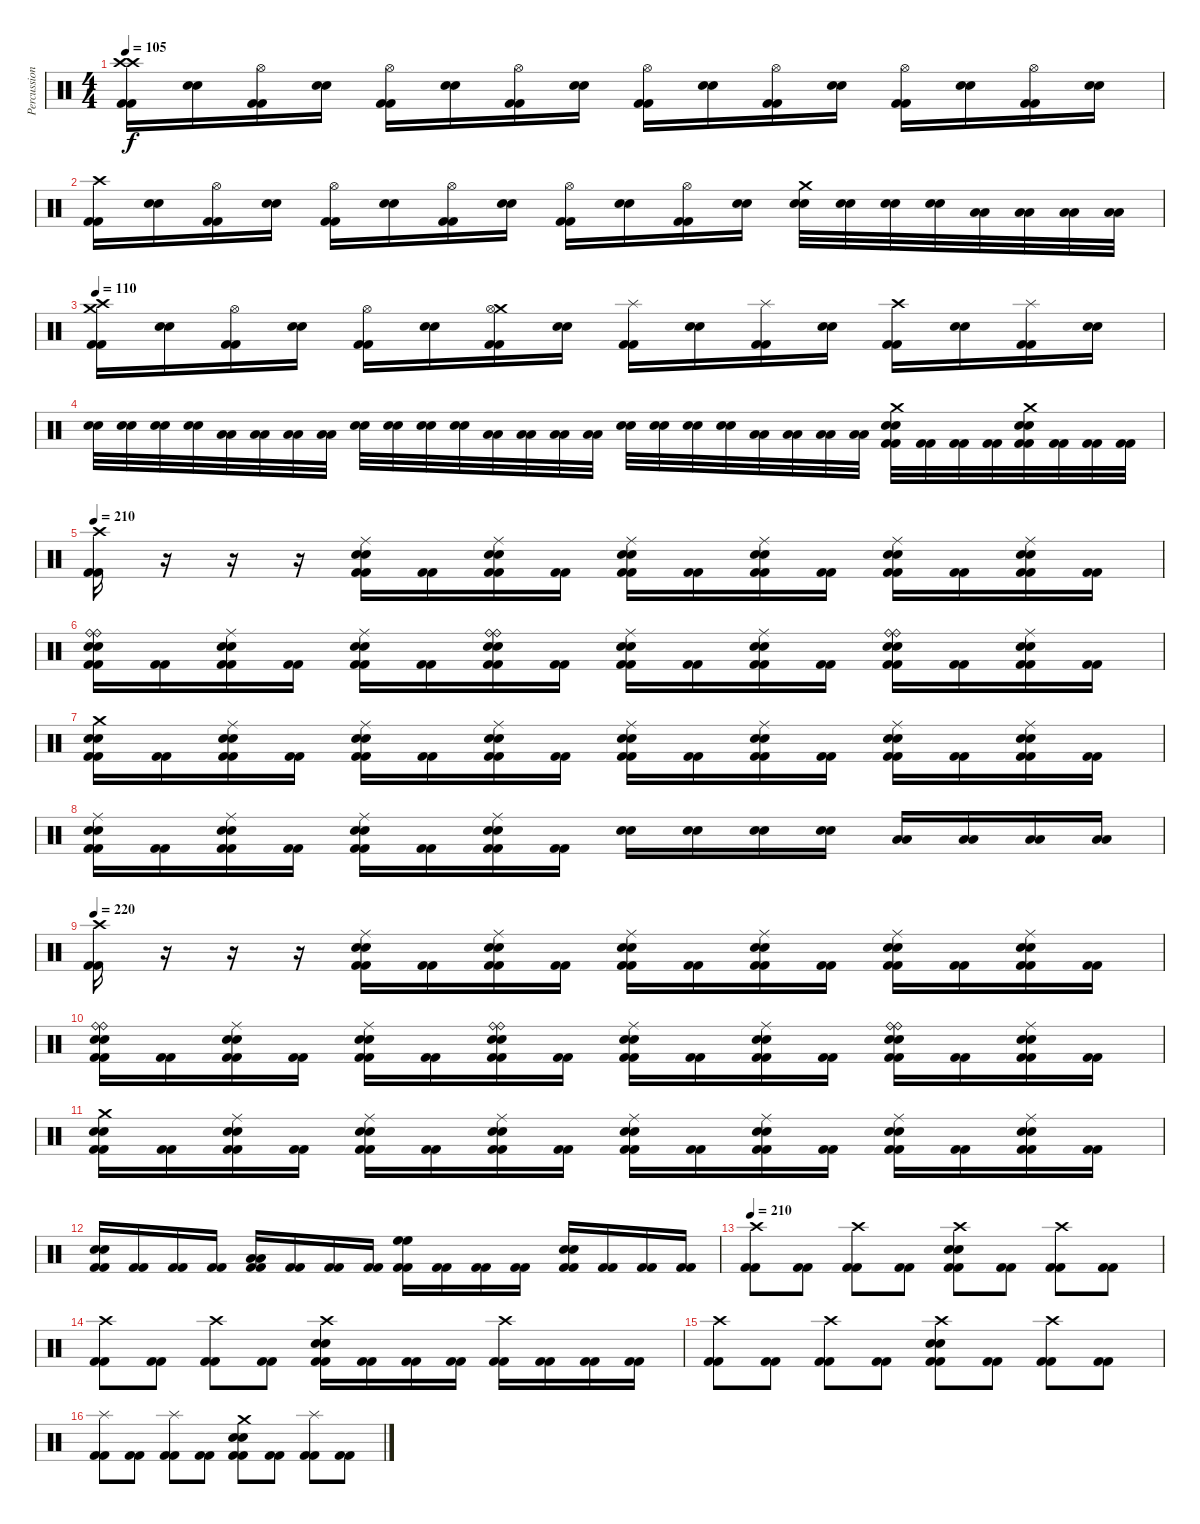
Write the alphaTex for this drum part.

\track ("Percussions" "Percussion") {instrument percussion}
\staff {score}
\articulation defaults
\ts (4 4)
\tempo 110
\tempo 105
\clef neutral
\ks c
("Crash high (hit)" "Crash high (hit)" "Kick (hit) 2" "Kick (hit) 2").16{dy f} ("Electric Snare (hit)" "Electric Snare (hit)").16 ("Hi-Hat (open)" "Kick (hit) 2" "Kick (hit) 2").16 ("Electric Snare (hit)" "Electric Snare (hit)").16 ("Hi-Hat (open)" "Kick (hit) 2" "Kick (hit) 2").16 ("Electric Snare (hit)" "Electric Snare (hit)").16 ("Hi-Hat (open)" "Kick (hit) 2" "Kick (hit) 2").16 ("Electric Snare (hit)" "Electric Snare (hit)").16 ("Hi-Hat (open)" "Kick (hit) 2" "Kick (hit) 2").16 ("Electric Snare (hit)" "Electric Snare (hit)").16 ("Hi-Hat (open)" "Kick (hit) 2" "Kick (hit) 2").16 ("Electric Snare (hit)" "Electric Snare (hit)").16 ("Hi-Hat (open)" "Kick (hit) 2" "Kick (hit) 2").16 ("Electric Snare (hit)" "Electric Snare (hit)").16 ("Hi-Hat (open)" "Kick (hit) 2" "Kick (hit) 2").16 ("Electric Snare (hit)" "Electric Snare (hit)").16 |
("Crash high (hit)" "Kick (hit) 2" "Kick (hit) 2").16 ("Electric Snare (hit)" "Electric Snare (hit)").16 ("Hi-Hat (open)" "Kick (hit) 2" "Kick (hit) 2").16 ("Electric Snare (hit)" "Electric Snare (hit)").16 ("Hi-Hat (open)" "Kick (hit) 2" "Kick (hit) 2").16 ("Electric Snare (hit)" "Electric Snare (hit)").16 ("Hi-Hat (open)" "Kick (hit) 2" "Kick (hit) 2").16 ("Electric Snare (hit)" "Electric Snare (hit)").16 ("Hi-Hat (open)" "Kick (hit) 2" "Kick (hit) 2").16 ("Electric Snare (hit)" "Electric Snare (hit)").16 ("Hi-Hat (open)" "Kick (hit) 2" "Kick (hit) 2").16 ("Electric Snare (hit)" "Electric Snare (hit)").16 ("Crash medium (hit)" "Electric Snare (hit)" "Electric Snare (hit)").32 ("Electric Snare (hit)" "Electric Snare (hit)").32 ("Electric Snare (hit)" "Electric Snare (hit)").32 ("Electric Snare (hit)" "Electric Snare (hit)").32 ("Low Tom (hit)" "Low Tom (hit)").32 ("Low Tom (hit)" "Low Tom (hit)").32 ("Low Tom (hit)" "Low Tom (hit)").32 ("Low Tom (hit)" "Low Tom (hit)").32 |
\tempo 110
("Crash high (hit)" "Crash medium (hit)" "Kick (hit) 2" "Kick (hit) 2").16 ("Electric Snare (hit)" "Electric Snare (hit)").16 ("Hi-Hat (open)" "Kick (hit) 2" "Kick (hit) 2").16 ("Electric Snare (hit)" "Electric Snare (hit)").16 ("Hi-Hat (open)" "Kick (hit) 2" "Kick (hit) 2").16 ("Electric Snare (hit)" "Electric Snare (hit)").16 ("Crash medium (hit)" "Hi-Hat (open)" "Kick (hit) 2" "Kick (hit) 2").16 ("Electric Snare (hit)" "Electric Snare (hit)").16 ("Splash (hit)" "Kick (hit) 2" "Kick (hit) 2").16 ("Electric Snare (hit)" "Electric Snare (hit)").16 ("Splash (hit)" "Kick (hit) 2" "Kick (hit) 2").16 ("Electric Snare (hit)" "Electric Snare (hit)").16 ("Crash high (hit)" "Kick (hit) 2" "Kick (hit) 2").16 ("Electric Snare (hit)" "Electric Snare (hit)").16 ("Splash (hit)" "Kick (hit) 2" "Kick (hit) 2").16 ("Electric Snare (hit)" "Electric Snare (hit)").16 |
("Electric Snare (hit)" "Electric Snare (hit)").32 ("Electric Snare (hit)" "Electric Snare (hit)").32 ("Electric Snare (hit)" "Electric Snare (hit)").32 ("Electric Snare (hit)" "Electric Snare (hit)").32 ("Low Tom (hit)" "Low Tom (hit)").32 ("Low Tom (hit)" "Low Tom (hit)").32 ("Low Tom (hit)" "Low Tom (hit)").32 ("Low Tom (hit)" "Low Tom (hit)").32 ("Electric Snare (hit)" "Electric Snare (hit)").32 ("Electric Snare (hit)" "Electric Snare (hit)").32 ("Electric Snare (hit)" "Electric Snare (hit)").32 ("Electric Snare (hit)" "Electric Snare (hit)").32 ("Low Tom (hit)" "Low Tom (hit)").32 ("Low Tom (hit)" "Low Tom (hit)").32 ("Low Tom (hit)" "Low Tom (hit)").32 ("Low Tom (hit)" "Low Tom (hit)").32 ("Electric Snare (hit)" "Electric Snare (hit)").32 ("Electric Snare (hit)" "Electric Snare (hit)").32 ("Electric Snare (hit)" "Electric Snare (hit)").32 ("Electric Snare (hit)" "Electric Snare (hit)").32 ("Low Tom (hit)" "Low Tom (hit)").32 ("Low Tom (hit)" "Low Tom (hit)").32 ("Low Tom (hit)" "Low Tom (hit)").32 ("Low Tom (hit)" "Low Tom (hit)").32 ("Crash medium (hit)" "Electric Snare (hit)" "Electric Snare (hit)" "Kick (hit) 2" "Kick (hit) 2").32 ("Kick (hit) 2" "Kick (hit) 2").32 ("Kick (hit) 2" "Kick (hit) 2").32 ("Kick (hit) 2" "Kick (hit) 2").32 ("Crash medium (hit)" "Electric Snare (hit)" "Electric Snare (hit)" "Kick (hit) 2" "Kick (hit) 2").32 ("Kick (hit) 2" "Kick (hit) 2").32 ("Kick (hit) 2" "Kick (hit) 2").32 ("Kick (hit) 2" "Kick (hit) 2").32 |
\tempo 210
("Crash high (hit)" "Kick (hit) 2" "Kick (hit) 2").16 r.16 r.16 r.16 ("Ride (middle)" "Electric Snare (hit)" "Electric Snare (hit)" "Kick (hit) 2" "Kick (hit) 2").16 ("Kick (hit) 2" "Kick (hit) 2").16 ("Ride (middle)" "Electric Snare (hit)" "Electric Snare (hit)" "Kick (hit) 2" "Kick (hit) 2").16 ("Kick (hit) 2" "Kick (hit) 2").16 ("Ride (middle)" "Electric Snare (hit)" "Electric Snare (hit)" "Kick (hit) 2" "Kick (hit) 2").16 ("Kick (hit) 2" "Kick (hit) 2").16 ("Ride (middle)" "Electric Snare (hit)" "Electric Snare (hit)" "Kick (hit) 2" "Kick (hit) 2").16 ("Kick (hit) 2" "Kick (hit) 2").16 ("Ride (middle)" "Electric Snare (hit)" "Electric Snare (hit)" "Kick (hit) 2" "Kick (hit) 2").16 ("Kick (hit) 2" "Kick (hit) 2").16 ("Ride (middle)" "Electric Snare (hit)" "Electric Snare (hit)" "Kick (hit) 2" "Kick (hit) 2").16 ("Kick (hit) 2" "Kick (hit) 2").16 |
("Ride (bell)" "Ride (bell)" "Electric Snare (hit)" "Electric Snare (hit)" "Kick (hit) 2" "Kick (hit) 2").16 ("Kick (hit) 2" "Kick (hit) 2").16 ("Ride (middle)" "Electric Snare (hit)" "Electric Snare (hit)" "Kick (hit) 2" "Kick (hit) 2").16 ("Kick (hit) 2" "Kick (hit) 2").16 ("Ride (middle)" "Electric Snare (hit)" "Electric Snare (hit)" "Kick (hit) 2" "Kick (hit) 2").16 ("Kick (hit) 2" "Kick (hit) 2").16 ("Ride (bell)" "Ride (bell)" "Electric Snare (hit)" "Electric Snare (hit)" "Kick (hit) 2" "Kick (hit) 2").16 ("Kick (hit) 2" "Kick (hit) 2").16 ("Ride (middle)" "Electric Snare (hit)" "Electric Snare (hit)" "Kick (hit) 2" "Kick (hit) 2").16 ("Kick (hit) 2" "Kick (hit) 2").16 ("Ride (middle)" "Electric Snare (hit)" "Electric Snare (hit)" "Kick (hit) 2" "Kick (hit) 2").16 ("Kick (hit) 2" "Kick (hit) 2").16 ("Ride (bell)" "Ride (bell)" "Electric Snare (hit)" "Electric Snare (hit)" "Kick (hit) 2" "Kick (hit) 2").16 ("Kick (hit) 2" "Kick (hit) 2").16 ("Ride (middle)" "Electric Snare (hit)" "Electric Snare (hit)" "Kick (hit) 2" "Kick (hit) 2").16 ("Kick (hit) 2" "Kick (hit) 2").16 |
("Crash medium (hit)" "Electric Snare (hit)" "Electric Snare (hit)" "Kick (hit) 2" "Kick (hit) 2").16 ("Kick (hit) 2" "Kick (hit) 2").16 ("Ride (middle)" "Electric Snare (hit)" "Electric Snare (hit)" "Kick (hit) 2" "Kick (hit) 2").16 ("Kick (hit) 2" "Kick (hit) 2").16 ("Ride (middle)" "Electric Snare (hit)" "Electric Snare (hit)" "Kick (hit) 2" "Kick (hit) 2").16 ("Kick (hit) 2" "Kick (hit) 2").16 ("Ride (middle)" "Electric Snare (hit)" "Electric Snare (hit)" "Kick (hit) 2" "Kick (hit) 2").16 ("Kick (hit) 2" "Kick (hit) 2").16 ("Ride (middle)" "Electric Snare (hit)" "Electric Snare (hit)" "Kick (hit) 2" "Kick (hit) 2").16 ("Kick (hit) 2" "Kick (hit) 2").16 ("Ride (middle)" "Electric Snare (hit)" "Electric Snare (hit)" "Kick (hit) 2" "Kick (hit) 2").16 ("Kick (hit) 2" "Kick (hit) 2").16 ("Ride (middle)" "Electric Snare (hit)" "Electric Snare (hit)" "Kick (hit) 2" "Kick (hit) 2").16 ("Kick (hit) 2" "Kick (hit) 2").16 ("Ride (middle)" "Electric Snare (hit)" "Electric Snare (hit)" "Kick (hit) 2" "Kick (hit) 2").16 ("Kick (hit) 2" "Kick (hit) 2").16 |
("Ride (middle)" "Electric Snare (hit)" "Electric Snare (hit)" "Kick (hit) 2" "Kick (hit) 2").16 ("Kick (hit) 2" "Kick (hit) 2").16 ("Ride (middle)" "Electric Snare (hit)" "Electric Snare (hit)" "Kick (hit) 2" "Kick (hit) 2").16 ("Kick (hit) 2" "Kick (hit) 2").16 ("Ride (middle)" "Electric Snare (hit)" "Electric Snare (hit)" "Kick (hit) 2" "Kick (hit) 2").16 ("Kick (hit) 2" "Kick (hit) 2").16 ("Ride (middle)" "Electric Snare (hit)" "Electric Snare (hit)" "Kick (hit) 2" "Kick (hit) 2").16 ("Kick (hit) 2" "Kick (hit) 2").16 ("Electric Snare (hit)" "Electric Snare (hit)").16 ("Electric Snare (hit)" "Electric Snare (hit)").16 ("Electric Snare (hit)" "Electric Snare (hit)").16 ("Electric Snare (hit)" "Electric Snare (hit)").16 ("Low Tom (hit)" "Low Tom (hit)").16 ("Low Tom (hit)" "Low Tom (hit)").16 ("Low Tom (hit)" "Low Tom (hit)").16 ("Low Tom (hit)" "Low Tom (hit)").16 |
\tempo 220
("Crash high (hit)" "Kick (hit) 2" "Kick (hit) 2").16 r.16 r.16 r.16 ("Ride (middle)" "Electric Snare (hit)" "Electric Snare (hit)" "Kick (hit) 2" "Kick (hit) 2").16 ("Kick (hit) 2" "Kick (hit) 2").16 ("Ride (middle)" "Electric Snare (hit)" "Electric Snare (hit)" "Kick (hit) 2" "Kick (hit) 2").16 ("Kick (hit) 2" "Kick (hit) 2").16 ("Ride (middle)" "Electric Snare (hit)" "Electric Snare (hit)" "Kick (hit) 2" "Kick (hit) 2").16 ("Kick (hit) 2" "Kick (hit) 2").16 ("Ride (middle)" "Electric Snare (hit)" "Electric Snare (hit)" "Kick (hit) 2" "Kick (hit) 2").16 ("Kick (hit) 2" "Kick (hit) 2").16 ("Ride (middle)" "Electric Snare (hit)" "Electric Snare (hit)" "Kick (hit) 2" "Kick (hit) 2").16 ("Kick (hit) 2" "Kick (hit) 2").16 ("Ride (middle)" "Electric Snare (hit)" "Electric Snare (hit)" "Kick (hit) 2" "Kick (hit) 2").16 ("Kick (hit) 2" "Kick (hit) 2").16 |
("Ride (bell)" "Ride (bell)" "Electric Snare (hit)" "Electric Snare (hit)" "Kick (hit) 2" "Kick (hit) 2").16 ("Kick (hit) 2" "Kick (hit) 2").16 ("Ride (middle)" "Electric Snare (hit)" "Electric Snare (hit)" "Kick (hit) 2" "Kick (hit) 2").16 ("Kick (hit) 2" "Kick (hit) 2").16 ("Ride (middle)" "Electric Snare (hit)" "Electric Snare (hit)" "Kick (hit) 2" "Kick (hit) 2").16 ("Kick (hit) 2" "Kick (hit) 2").16 ("Ride (bell)" "Ride (bell)" "Electric Snare (hit)" "Electric Snare (hit)" "Kick (hit) 2" "Kick (hit) 2").16 ("Kick (hit) 2" "Kick (hit) 2").16 ("Ride (middle)" "Electric Snare (hit)" "Electric Snare (hit)" "Kick (hit) 2" "Kick (hit) 2").16 ("Kick (hit) 2" "Kick (hit) 2").16 ("Ride (middle)" "Electric Snare (hit)" "Electric Snare (hit)" "Kick (hit) 2" "Kick (hit) 2").16 ("Kick (hit) 2" "Kick (hit) 2").16 ("Ride (bell)" "Ride (bell)" "Electric Snare (hit)" "Electric Snare (hit)" "Kick (hit) 2" "Kick (hit) 2").16 ("Kick (hit) 2" "Kick (hit) 2").16 ("Ride (middle)" "Electric Snare (hit)" "Electric Snare (hit)" "Kick (hit) 2" "Kick (hit) 2").16 ("Kick (hit) 2" "Kick (hit) 2").16 |
("Crash medium (hit)" "Electric Snare (hit)" "Electric Snare (hit)" "Kick (hit) 2" "Kick (hit) 2").16 ("Kick (hit) 2" "Kick (hit) 2").16 ("Ride (middle)" "Electric Snare (hit)" "Electric Snare (hit)" "Kick (hit) 2" "Kick (hit) 2").16 ("Kick (hit) 2" "Kick (hit) 2").16 ("Ride (middle)" "Electric Snare (hit)" "Electric Snare (hit)" "Kick (hit) 2" "Kick (hit) 2").16 ("Kick (hit) 2" "Kick (hit) 2").16 ("Ride (middle)" "Electric Snare (hit)" "Electric Snare (hit)" "Kick (hit) 2" "Kick (hit) 2").16 ("Kick (hit) 2" "Kick (hit) 2").16 ("Ride (middle)" "Electric Snare (hit)" "Electric Snare (hit)" "Kick (hit) 2" "Kick (hit) 2").16 ("Kick (hit) 2" "Kick (hit) 2").16 ("Ride (middle)" "Electric Snare (hit)" "Electric Snare (hit)" "Kick (hit) 2" "Kick (hit) 2").16 ("Kick (hit) 2" "Kick (hit) 2").16 ("Ride (middle)" "Electric Snare (hit)" "Electric Snare (hit)" "Kick (hit) 2" "Kick (hit) 2").16 ("Kick (hit) 2" "Kick (hit) 2").16 ("Ride (middle)" "Electric Snare (hit)" "Electric Snare (hit)" "Kick (hit) 2" "Kick (hit) 2").16 ("Kick (hit) 2" "Kick (hit) 2").16 |
("Electric Snare (hit)" "Electric Snare (hit)" "Kick (hit) 2" "Kick (hit) 2").16 ("Kick (hit) 2" "Kick (hit) 2").16 ("Kick (hit) 2" "Kick (hit) 2").16 ("Kick (hit) 2" "Kick (hit) 2").16 ("Low Tom (hit)" "Low Tom (hit)" "Kick (hit) 2" "Kick (hit) 2").16 ("Kick (hit) 2" "Kick (hit) 2").16 ("Kick (hit) 2" "Kick (hit) 2").16 ("Kick (hit) 2" "Kick (hit) 2").16 ("High Floor Tom (hit)" "High Floor Tom (hit)" "Kick (hit) 2" "Kick (hit) 2").16 ("Kick (hit) 2" "Kick (hit) 2").16 ("Kick (hit) 2" "Kick (hit) 2").16 ("Kick (hit) 2" "Kick (hit) 2").16 ("Electric Snare (hit)" "Electric Snare (hit)" "Kick (hit) 2" "Kick (hit) 2").16 ("Kick (hit) 2" "Kick (hit) 2").16 ("Kick (hit) 2" "Kick (hit) 2").16 ("Kick (hit) 2" "Kick (hit) 2").16 |
\tempo 210
("Crash high (hit)" "Kick (hit) 2" "Kick (hit) 2").8 ("Kick (hit) 2" "Kick (hit) 2").8 ("Crash high (hit)" "Kick (hit) 2" "Kick (hit) 2").8 ("Kick (hit) 2" "Kick (hit) 2").8 ("Crash high (hit)" "Electric Snare (hit)" "Electric Snare (hit)" "Kick (hit) 2" "Kick (hit) 2").8 ("Kick (hit) 2" "Kick (hit) 2").8 ("Crash high (hit)" "Kick (hit) 2" "Kick (hit) 2").8 ("Kick (hit) 2" "Kick (hit) 2").8 |
("Crash high (hit)" "Kick (hit) 2" "Kick (hit) 2").8 ("Kick (hit) 2" "Kick (hit) 2").8 ("Crash high (hit)" "Kick (hit) 2" "Kick (hit) 2").8 ("Kick (hit) 2" "Kick (hit) 2").8 ("Crash high (hit)" "Electric Snare (hit)" "Electric Snare (hit)" "Kick (hit) 2" "Kick (hit) 2").16 ("Kick (hit) 2" "Kick (hit) 2").16 ("Kick (hit) 2" "Kick (hit) 2").16 ("Kick (hit) 2" "Kick (hit) 2").16 ("Crash high (hit)" "Kick (hit) 2" "Kick (hit) 2").16 ("Kick (hit) 2" "Kick (hit) 2").16 ("Kick (hit) 2" "Kick (hit) 2").16 ("Kick (hit) 2" "Kick (hit) 2").16 |
("Crash high (hit)" "Kick (hit) 2" "Kick (hit) 2").8 ("Kick (hit) 2" "Kick (hit) 2").8 ("Crash high (hit)" "Kick (hit) 2" "Kick (hit) 2").8 ("Kick (hit) 2" "Kick (hit) 2").8 ("Crash high (hit)" "Electric Snare (hit)" "Electric Snare (hit)" "Kick (hit) 2" "Kick (hit) 2").8 ("Kick (hit) 2" "Kick (hit) 2").8 ("Crash high (hit)" "Kick (hit) 2" "Kick (hit) 2").8 ("Kick (hit) 2" "Kick (hit) 2").8 |
("Splash (hit)" "Kick (hit) 2" "Kick (hit) 2").8 ("Kick (hit) 2" "Kick (hit) 2").8 ("Splash (hit)" "Kick (hit) 2" "Kick (hit) 2").8 ("Kick (hit) 2" "Kick (hit) 2").8 ("Crash medium (hit)" "Electric Snare (hit)" "Electric Snare (hit)" "Kick (hit) 2" "Kick (hit) 2").8 ("Kick (hit) 2" "Kick (hit) 2").8 ("Splash (hit)" "Kick (hit) 2" "Kick (hit) 2").8 ("Kick (hit) 2" "Kick (hit) 2").8
